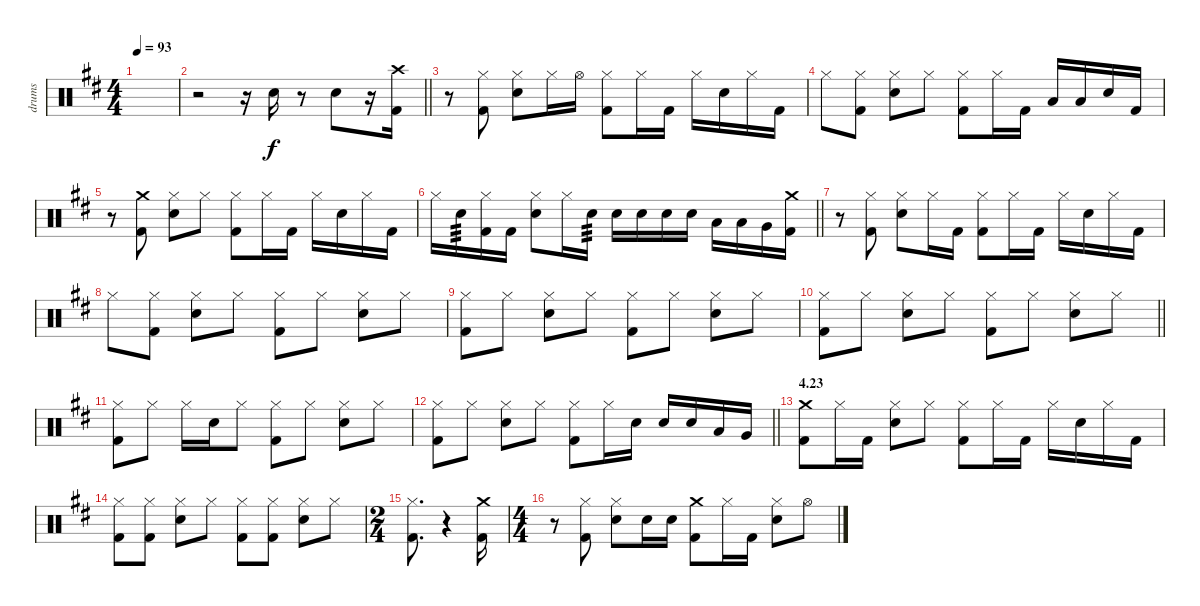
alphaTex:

\track ("drums" "drums") {instrument percussion}
\staff {score}
\articulation defaults
\ts (4 4)
\tempo 93
\clef neutral
\ks d
|
\barLineRight lightlight
r.2 r.16 "Electric Snare (hit)".16 r.8 "Electric Snare (hit)".8 r.16 ("Crash high (hit)" "Kick (hit) 2").16 |
r.8 ("Hi-Hat (closed)" "Kick (hit) 2").8 ("Hi-Hat (closed)" "Electric Snare (hit)").8 "Hi-Hat (closed)".16 "Hi-Hat (open)".16 ("Hi-Hat (closed)" "Kick (hit) 2").8 "Hi-Hat (closed)".16 "Kick (hit) 2".16 "Hi-Hat (closed)".16 "Electric Snare (hit)".16 "Hi-Hat (closed)".16 "Kick (hit) 2".16 |
"Hi-Hat (closed)".8 ("Hi-Hat (closed)" "Kick (hit) 2").8 ("Hi-Hat (closed)" "Electric Snare (hit)").8 "Hi-Hat (closed)".8 ("Hi-Hat (closed)" "Kick (hit) 2").8 "Hi-Hat (closed)".16 "Kick (hit) 2".16 "Low Tom (hit)".16 "Low Tom (hit)".16 "Electric Snare (hit)".16 "Kick (hit) 2".16 |
r.8 ("Crash medium (hit)" "Kick (hit) 2").8 ("Hi-Hat (closed)" "Electric Snare (hit)").8 "Hi-Hat (closed)".8 ("Hi-Hat (closed)" "Kick (hit) 2").8 "Hi-Hat (closed)".16 "Kick (hit) 2".16 "Hi-Hat (closed)".16 "Electric Snare (hit)".16 "Hi-Hat (closed)".16 "Kick (hit) 2".16 |
\barLineRight lightlight "Hi-Hat (closed)".16 "Electric Snare (hit)".16{tp 3}
("Hi-Hat (closed)" "Kick (hit) 2").16 "Kick (hit) 2".16 ("Hi-Hat (closed)" "Electric Snare (hit)").8 "Hi-Hat (closed)".16 "Electric Snare (hit)".16{tp 3} "Electric Snare (hit)".16 "Electric Snare (hit)".16 "Electric Snare (hit)".16 "Electric Snare (hit)".16 "Low Tom (hit)".16 "Low Tom (hit)".16 "Very Low Tom (hit)".16 ("Crash medium (hit)" "Kick (hit) 2").16 |
r.8 ("Hi-Hat (closed)" "Kick (hit) 2").8 ("Hi-Hat (closed)" "Electric Snare (hit)").8 "Hi-Hat (closed)".16 "Kick (hit) 2".16 ("Hi-Hat (closed)" "Kick (hit) 2").8 "Hi-Hat (closed)".16 "Kick (hit) 2".16 "Hi-Hat (closed)".16 "Electric Snare (hit)".16 "Hi-Hat (closed)".16 "Kick (hit) 2".16 |
"Hi-Hat (closed)".8 ("Hi-Hat (closed)" "Kick (hit) 2").8 ("Hi-Hat (closed)" "Electric Snare (hit)").8 "Hi-Hat (closed)".8 ("Hi-Hat (closed)" "Kick (hit) 2").8 "Hi-Hat (closed)".8 ("Hi-Hat (closed)" "Electric Snare (hit)").8 "Hi-Hat (closed)".8 |
("Hi-Hat (closed)" "Kick (hit) 2").8 "Hi-Hat (closed)".8 ("Hi-Hat (closed)" "Electric Snare (hit)").8 "Hi-Hat (closed)".8 ("Hi-Hat (closed)" "Kick (hit) 2").8 "Hi-Hat (closed)".8 ("Hi-Hat (closed)" "Electric Snare (hit)").8 "Hi-Hat (closed)".8 |
\barLineRight lightlight
("Hi-Hat (closed)" "Kick (hit) 2").8 "Hi-Hat (closed)".8 ("Hi-Hat (closed)" "Electric Snare (hit)").8 "Hi-Hat (closed)".8 ("Hi-Hat (closed)" "Kick (hit) 2").8 "Hi-Hat (closed)".8 ("Hi-Hat (closed)" "Electric Snare (hit)").8 "Hi-Hat (closed)".8 |
("Hi-Hat (closed)" "Kick (hit) 2").8 "Hi-Hat (closed)".8 "Hi-Hat (closed)".16 "Electric Snare (hit)".16 "Hi-Hat (closed)".8 ("Hi-Hat (closed)" "Kick (hit) 2").8 "Hi-Hat (closed)".8 ("Hi-Hat (closed)" "Electric Snare (hit)").8 "Hi-Hat (closed)".8 |
\barLineRight lightlight
("Hi-Hat (closed)" "Kick (hit) 2").8 "Hi-Hat (closed)".8 ("Hi-Hat (closed)" "Electric Snare (hit)").8 "Hi-Hat (closed)".8 ("Hi-Hat (closed)" "Kick (hit) 2").8 "Hi-Hat (closed)".16 "Electric Snare (hit)".16 "Electric Snare (hit)".16 "Electric Snare (hit)".16 "Low Tom (hit)".16 "Very Low Tom (hit)".16 |
\section ("" "4.23")
("Crash medium (hit)" "Kick (hit) 2").8 "Hi-Hat (closed)".16 "Kick (hit) 2".16 ("Hi-Hat (closed)" "Electric Snare (hit)").8 "Hi-Hat (closed)".8 ("Hi-Hat (closed)" "Kick (hit) 2").8 "Hi-Hat (closed)".16 "Kick (hit) 2".16 "Hi-Hat (closed)".16 "Electric Snare (hit)".16 "Hi-Hat (closed)".16 "Kick (hit) 2".16 |
("Hi-Hat (closed)" "Kick (hit) 2").8 ("Hi-Hat (closed)" "Kick (hit) 2").8 ("Hi-Hat (closed)" "Electric Snare (hit)").8 "Hi-Hat (closed)".8 ("Hi-Hat (closed)" "Kick (hit) 2").8 ("Hi-Hat (closed)" "Kick (hit) 2").8 ("Hi-Hat (closed)" "Electric Snare (hit)").8 "Hi-Hat (closed)".8 |
\ts (2 4)
("Hi-Hat (closed)" "Kick (hit) 2").8{d} r.4 ("Crash medium (hit)" "Kick (hit) 2").16 |
\ts (4 4)
r.8 ("Hi-Hat (closed)" "Kick (hit) 2").8 ("Hi-Hat (closed)" "Electric Snare (hit)").8 "Electric Snare (hit)".16 "Electric Snare (hit)".16 ("Crash medium (hit)" "Kick (hit) 2").8 "Hi-Hat (closed)".16 "Kick (hit) 2".16 ("Hi-Hat (closed)" "Electric Snare (hit)").8 "Hi-Hat (open)".8
